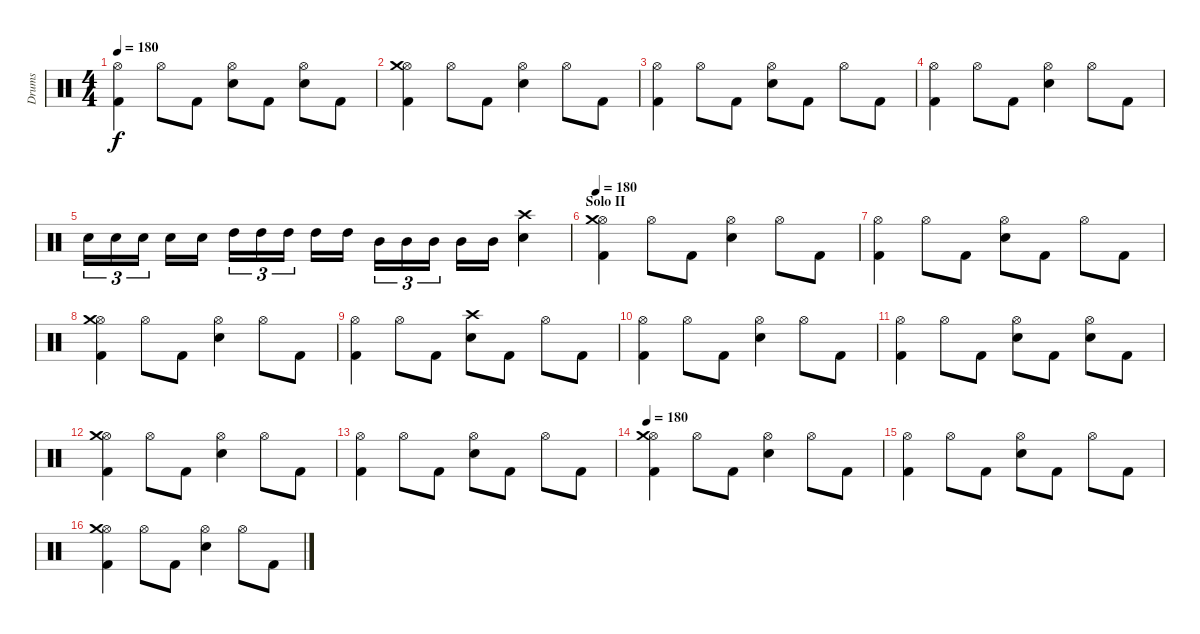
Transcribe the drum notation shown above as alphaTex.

\track ("Drums" "Drums") {instrument percussion}
\staff {score}
\articulation defaults
\ts (4 4)
\tempo 180
\clef neutral
\ks c
("Kick (hit) 2" "Hi-Hat (open)").4{dy f} "Hi-Hat (open)".8 "Kick (hit) 2".8 ("Electric Snare (hit)" "Hi-Hat (open)").8 "Kick (hit) 2".8 ("Electric Snare (hit)" "Hi-Hat (open)").8 "Kick (hit) 2".8 |
("Kick (hit) 2" "Hi-Hat (open)" "Crash medium (hit)").4 "Hi-Hat (open)".8 "Kick (hit) 2".8 ("Electric Snare (hit)" "Hi-Hat (open)").4 "Hi-Hat (open)".8 "Kick (hit) 2".8 |
("Kick (hit) 2" "Hi-Hat (open)").4 "Hi-Hat (open)".8 "Kick (hit) 2".8 ("Electric Snare (hit)" "Hi-Hat (open)").8 "Kick (hit) 2".8 "Hi-Hat (open)".8 "Kick (hit) 2".8 |
("Kick (hit) 2" "Hi-Hat (open)").4 "Hi-Hat (open)".8 "Kick (hit) 2".8 ("Electric Snare (hit)" "Hi-Hat (open)").4 "Hi-Hat (open)".8 "Kick (hit) 2".8 |
"Electric Snare (hit)".16{tu (3 2)} "Electric Snare (hit)".16{tu (3 2)} "Electric Snare (hit)".16{tu (3 2)} "Electric Snare (hit)".16 "Electric Snare (hit)".16 "High Tom (hit)".16{tu (3 2)} "High Tom (hit)".16{tu (3 2)} "High Tom (hit)".16{tu (3 2)} "High Tom (hit)".16 "High Tom (hit)".16 "Mid Tom (hit)".16{tu (3 2)} "Mid Tom (hit)".16{tu (3 2)} "Mid Tom (hit)".16{tu (3 2)} "Mid Tom (hit)".16 "Mid Tom (hit)".16 ("Electric Snare (hit)" "Crash high (hit)").4 |
\section ("" "Solo II")
\tempo 180
("Kick (hit) 2" "Hi-Hat (open)" "Crash medium (hit)").4 "Hi-Hat (open)".8 "Kick (hit) 2".8 ("Electric Snare (hit)" "Hi-Hat (open)").4 "Hi-Hat (open)".8 "Kick (hit) 2".8 |
("Kick (hit) 2" "Hi-Hat (open)").4 "Hi-Hat (open)".8 "Kick (hit) 2".8 ("Electric Snare (hit)" "Hi-Hat (open)").8 "Kick (hit) 2".8 "Hi-Hat (open)".8 "Kick (hit) 2".8 |
("Kick (hit) 2" "Hi-Hat (open)" "Crash medium (hit)").4 "Hi-Hat (open)".8 "Kick (hit) 2".8 ("Electric Snare (hit)" "Hi-Hat (open)").4 "Hi-Hat (open)".8 "Kick (hit) 2".8 |
("Kick (hit) 2" "Hi-Hat (open)").4 "Hi-Hat (open)".8 "Kick (hit) 2".8 ("Electric Snare (hit)" "Crash high (hit)").8 "Kick (hit) 2".8 "Hi-Hat (open)".8 "Kick (hit) 2".8 |
("Kick (hit) 2" "Hi-Hat (open)").4 "Hi-Hat (open)".8 "Kick (hit) 2".8 ("Electric Snare (hit)" "Hi-Hat (open)").4 "Hi-Hat (open)".8 "Kick (hit) 2".8 |
("Kick (hit) 2" "Hi-Hat (open)").4 "Hi-Hat (open)".8 "Kick (hit) 2".8 ("Electric Snare (hit)" "Hi-Hat (open)").8 "Kick (hit) 2".8 ("Electric Snare (hit)" "Hi-Hat (open)").8 "Kick (hit) 2".8 |
("Kick (hit) 2" "Hi-Hat (open)" "Crash medium (hit)").4 "Hi-Hat (open)".8 "Kick (hit) 2".8 ("Electric Snare (hit)" "Hi-Hat (open)").4 "Hi-Hat (open)".8 "Kick (hit) 2".8 |
("Kick (hit) 2" "Hi-Hat (open)").4 "Hi-Hat (open)".8 "Kick (hit) 2".8 ("Electric Snare (hit)" "Hi-Hat (open)").8 "Kick (hit) 2".8 "Hi-Hat (open)".8 "Kick (hit) 2".8 |
\tempo 180
("Kick (hit) 2" "Hi-Hat (open)" "Crash medium (hit)").4 "Hi-Hat (open)".8 "Kick (hit) 2".8 ("Electric Snare (hit)" "Hi-Hat (open)").4 "Hi-Hat (open)".8 "Kick (hit) 2".8 |
("Kick (hit) 2" "Hi-Hat (open)").4 "Hi-Hat (open)".8 "Kick (hit) 2".8 ("Electric Snare (hit)" "Hi-Hat (open)").8 "Kick (hit) 2".8 "Hi-Hat (open)".8 "Kick (hit) 2".8 |
("Kick (hit) 2" "Hi-Hat (open)" "Crash medium (hit)").4 "Hi-Hat (open)".8 "Kick (hit) 2".8 ("Electric Snare (hit)" "Hi-Hat (open)").4 "Hi-Hat (open)".8 "Kick (hit) 2".8
